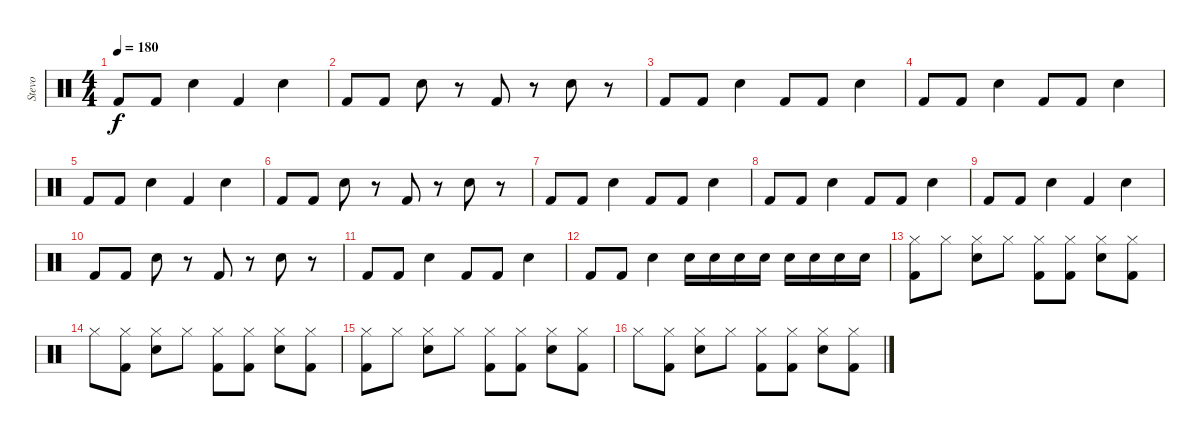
\track ("Stevo" "Stevo") {instrument percussion}
\staff {score}
\articulation defaults
\ts (4 4)
\tempo 180
\clef neutral
\ks c "Kick (hit) 2".8{dy f} "Kick (hit) 2".8 "Electric Snare (hit)".4 "Kick (hit) 2".4 "Electric Snare (hit)".4
|
"Kick (hit) 2".8 "Kick (hit) 2".8 "Electric Snare (hit)".8 r.8 "Kick (hit) 2".8 r.8 "Electric Snare (hit)".8 r.8 |
"Kick (hit) 2".8 "Kick (hit) 2".8 "Electric Snare (hit)".4 "Kick (hit) 2".8 "Kick (hit) 2".8 "Electric Snare (hit)".4 |
"Kick (hit) 2".8 "Kick (hit) 2".8 "Electric Snare (hit)".4 "Kick (hit) 2".8 "Kick (hit) 2".8 "Electric Snare (hit)".4 |
"Kick (hit) 2".8 "Kick (hit) 2".8 "Electric Snare (hit)".4 "Kick (hit) 2".4 "Electric Snare (hit)".4 |
"Kick (hit) 2".8 "Kick (hit) 2".8 "Electric Snare (hit)".8 r.8 "Kick (hit) 2".8 r.8 "Electric Snare (hit)".8 r.8 |
"Kick (hit) 2".8 "Kick (hit) 2".8 "Electric Snare (hit)".4 "Kick (hit) 2".8 "Kick (hit) 2".8 "Electric Snare (hit)".4 |
"Kick (hit) 2".8 "Kick (hit) 2".8 "Electric Snare (hit)".4 "Kick (hit) 2".8 "Kick (hit) 2".8 "Electric Snare (hit)".4 |
"Kick (hit) 2".8 "Kick (hit) 2".8 "Electric Snare (hit)".4 "Kick (hit) 2".4 "Electric Snare (hit)".4 |
"Kick (hit) 2".8 "Kick (hit) 2".8 "Electric Snare (hit)".8 r.8 "Kick (hit) 2".8 r.8 "Electric Snare (hit)".8 r.8 |
"Kick (hit) 2".8 "Kick (hit) 2".8 "Electric Snare (hit)".4 "Kick (hit) 2".8 "Kick (hit) 2".8 "Electric Snare (hit)".4 |
"Kick (hit) 2".8 "Kick (hit) 2".8 "Electric Snare (hit)".4 "Electric Snare (hit)".16 "Electric Snare (hit)".16 "Electric Snare (hit)".16 "Electric Snare (hit)".16 "Electric Snare (hit)".16 "Electric Snare (hit)".16 "Electric Snare (hit)".16 "Electric Snare (hit)".16 |
("Hi-Hat (closed)" "Kick (hit) 2").8 "Hi-Hat (closed)".8 ("Hi-Hat (closed)" "Electric Snare (hit)").8 "Hi-Hat (closed)".8 ("Hi-Hat (closed)" "Kick (hit) 2").8 ("Hi-Hat (closed)" "Kick (hit) 2").8 ("Hi-Hat (closed)" "Electric Snare (hit)").8 ("Hi-Hat (closed)" "Kick (hit) 2").8 |
"Hi-Hat (closed)".8 ("Hi-Hat (closed)" "Kick (hit) 2").8 ("Hi-Hat (closed)" "Electric Snare (hit)").8 "Hi-Hat (closed)".8 ("Hi-Hat (closed)" "Kick (hit) 2").8 ("Hi-Hat (closed)" "Kick (hit) 2").8 ("Hi-Hat (closed)" "Electric Snare (hit)").8 ("Hi-Hat (closed)" "Kick (hit) 2").8 |
("Hi-Hat (closed)" "Kick (hit) 2").8 "Hi-Hat (closed)".8 ("Hi-Hat (closed)" "Electric Snare (hit)").8 "Hi-Hat (closed)".8 ("Hi-Hat (closed)" "Kick (hit) 2").8 ("Hi-Hat (closed)" "Kick (hit) 2").8 ("Hi-Hat (closed)" "Electric Snare (hit)").8 ("Hi-Hat (closed)" "Kick (hit) 2").8 |
"Hi-Hat (closed)".8 ("Hi-Hat (closed)" "Kick (hit) 2").8 ("Hi-Hat (closed)" "Electric Snare (hit)").8 "Hi-Hat (closed)".8 ("Hi-Hat (closed)" "Kick (hit) 2").8 ("Hi-Hat (closed)" "Kick (hit) 2").8 ("Hi-Hat (closed)" "Electric Snare (hit)").8 ("Hi-Hat (closed)" "Kick (hit) 2").8
